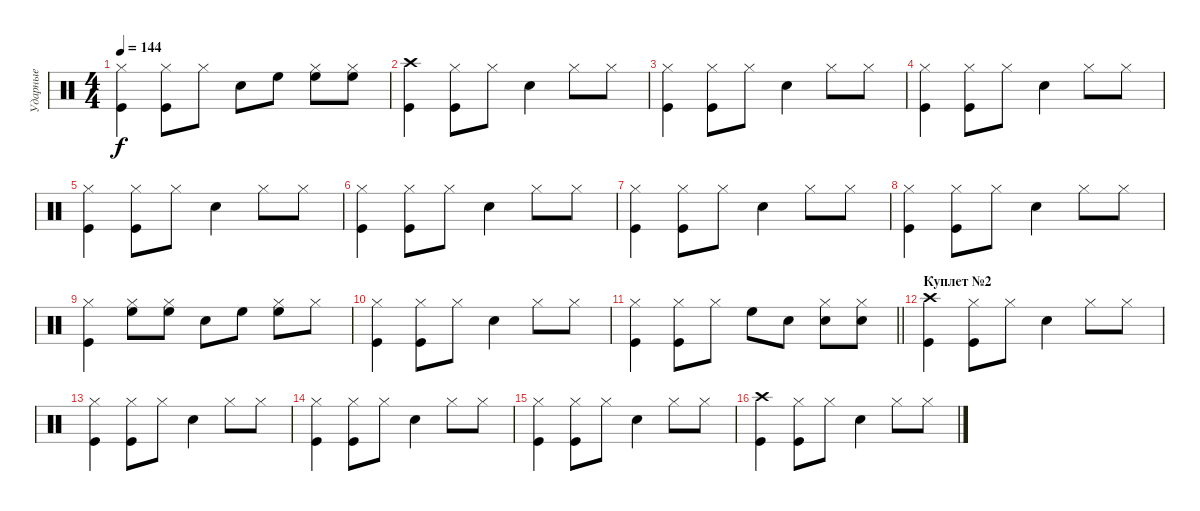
\track ("Ударные" "Ударные") {instrument percussion}
\staff {score}
\articulation defaults
\ts (4 4)
\tempo 144
\clef neutral
\ks c
("Hi-Hat (closed)" "Kick (hit)").4{dy f} ("Hi-Hat (closed)" "Kick (hit)").8 "Hi-Hat (closed)".8 "Snare (hit) 2".8 "High Floor Tom (hit)".8 ("Hi-Hat (closed)" "High Floor Tom (hit)").8 ("Hi-Hat (closed)" "High Floor Tom (hit)").8 |
("Crash high (hit)" "Kick (hit)").4 ("Hi-Hat (closed)" "Kick (hit)").8 "Hi-Hat (closed)".8 "Snare (hit) 2".4 "Hi-Hat (closed)".8 "Hi-Hat (closed)".8 |
("Hi-Hat (closed)" "Kick (hit)").4 ("Hi-Hat (closed)" "Kick (hit)").8 "Hi-Hat (closed)".8 "Snare (hit) 2".4 "Hi-Hat (closed)".8 "Hi-Hat (closed)".8 |
("Hi-Hat (closed)" "Kick (hit)").4 ("Hi-Hat (closed)" "Kick (hit)").8 "Hi-Hat (closed)".8 "Snare (hit) 2".4 "Hi-Hat (closed)".8 "Hi-Hat (closed)".8 |
("Hi-Hat (closed)" "Kick (hit)").4 ("Hi-Hat (closed)" "Kick (hit)").8 "Hi-Hat (closed)".8 "Snare (hit) 2".4 "Hi-Hat (closed)".8 "Hi-Hat (closed)".8 |
("Hi-Hat (closed)" "Kick (hit)").4 ("Hi-Hat (closed)" "Kick (hit)").8 "Hi-Hat (closed)".8 "Snare (hit) 2".4 "Hi-Hat (closed)".8 "Hi-Hat (closed)".8 |
("Hi-Hat (closed)" "Kick (hit)").4 ("Hi-Hat (closed)" "Kick (hit)").8 "Hi-Hat (closed)".8 "Snare (hit) 2".4 "Hi-Hat (closed)".8 "Hi-Hat (closed)".8 |
("Hi-Hat (closed)" "Kick (hit)").4 ("Hi-Hat (closed)" "Kick (hit)").8 "Hi-Hat (closed)".8 "Snare (hit) 2".4 "Hi-Hat (closed)".8 "Hi-Hat (closed)".8 |
("Hi-Hat (closed)" "Kick (hit)").4 ("Hi-Hat (closed)" "High Floor Tom (hit)").8 ("Hi-Hat (closed)" "High Floor Tom (hit)").8 "Snare (hit) 2".8 "High Floor Tom (hit)".8 ("Hi-Hat (closed)" "High Floor Tom (hit)").8 "Hi-Hat (closed)".8 |
("Hi-Hat (closed)" "Kick (hit)").4 ("Hi-Hat (closed)" "Kick (hit)").8 "Hi-Hat (closed)".8 "Snare (hit) 2".4 "Hi-Hat (closed)".8 "Hi-Hat (closed)".8 |
\barLineRight lightlight
("Hi-Hat (closed)" "Kick (hit)").4 ("Hi-Hat (closed)" "Kick (hit)").8 "Hi-Hat (closed)".8 "High Floor Tom (hit)".8 "Snare (hit) 2".8 ("Hi-Hat (closed)" "Snare (hit) 2").8 ("Hi-Hat (closed)" "Snare (hit) 2").8 |
\section ("" "Куплет №2")
("Crash high (hit)" "Kick (hit)").4 ("Hi-Hat (closed)" "Kick (hit)").8 "Hi-Hat (closed)".8 "Snare (hit) 2".4 "Hi-Hat (closed)".8 "Hi-Hat (closed)".8 |
("Hi-Hat (closed)" "Kick (hit)").4 ("Hi-Hat (closed)" "Kick (hit)").8 "Hi-Hat (closed)".8 "Snare (hit) 2".4 "Hi-Hat (closed)".8 "Hi-Hat (closed)".8 |
("Hi-Hat (closed)" "Kick (hit)").4 ("Hi-Hat (closed)" "Kick (hit)").8 "Hi-Hat (closed)".8 "Snare (hit) 2".4 "Hi-Hat (closed)".8 "Hi-Hat (closed)".8 |
("Hi-Hat (closed)" "Kick (hit)").4 ("Hi-Hat (closed)" "Kick (hit)").8 "Hi-Hat (closed)".8 "Snare (hit) 2".4 "Hi-Hat (closed)".8 "Hi-Hat (closed)".8 |
("Crash high (hit)" "Kick (hit)").4 ("Hi-Hat (closed)" "Kick (hit)").8 "Hi-Hat (closed)".8 "Snare (hit) 2".4 "Hi-Hat (closed)".8 "Hi-Hat (closed)".8
